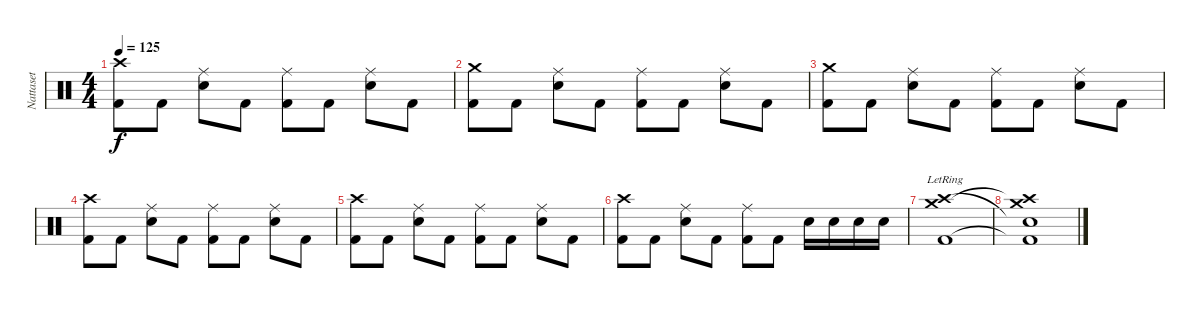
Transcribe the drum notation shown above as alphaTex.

\track ("Nattaset" "Nattaset") {instrument percussion}
\staff {score}
\articulation defaults
\ts (4 4)
\tempo 125
\clef neutral
\ks c
("Kick (hit) 2" "Crash high (hit)").8{dy f} "Kick (hit) 2".8 ("Snare (hit) 2" "Ride (middle)").8 "Kick (hit) 2".8 ("Kick (hit) 2" "Ride (middle)").8 "Kick (hit) 2".8 ("Snare (hit) 2" "Ride (middle)").8 "Kick (hit) 2".8 |
("Kick (hit) 2" "Crash medium (hit)").8 "Kick (hit) 2".8 ("Snare (hit) 2" "Ride (middle)").8 "Kick (hit) 2".8 ("Kick (hit) 2" "Ride (middle)").8 "Kick (hit) 2".8 ("Snare (hit) 2" "Ride (middle)").8 "Kick (hit) 2".8 |
("Kick (hit) 2" "Crash medium (hit)").8 "Kick (hit) 2".8 ("Snare (hit) 2" "Ride (middle)").8 "Kick (hit) 2".8 ("Kick (hit) 2" "Ride (middle)").8 "Kick (hit) 2".8 ("Snare (hit) 2" "Ride (middle)").8 "Kick (hit) 2".8 |
("Kick (hit) 2" "Crash high (hit)").8 "Kick (hit) 2".8 ("Snare (hit) 2" "Ride (middle)").8 "Kick (hit) 2".8 ("Kick (hit) 2" "Ride (middle)").8 "Kick (hit) 2".8 ("Snare (hit) 2" "Ride (middle)").8 "Kick (hit) 2".8 |
("Kick (hit) 2" "Crash high (hit)").8 "Kick (hit) 2".8 ("Snare (hit) 2" "Ride (middle)").8 "Kick (hit) 2".8 ("Kick (hit) 2" "Ride (middle)").8 "Kick (hit) 2".8 ("Snare (hit) 2" "Ride (middle)").8 "Kick (hit) 2".8 |
("Kick (hit) 2" "Crash high (hit)").8 "Kick (hit) 2".8 ("Snare (hit) 2" "Ride (middle)").8 "Kick (hit) 2".8 ("Kick (hit) 2" "Ride (middle)").8 "Kick (hit) 2".8 "Snare (hit) 2".16 "Snare (hit) 2".16 "Snare (hit) 2".16 "Snare (hit) 2".16 |
("Kick (hit) 2" "Crash high (hit)" "Crash medium (hit)"{lr}).1 |
("Kick (hit) 2"{t} "Snare (hit)"{t} "Crash high (hit)"{t} "Crash medium (hit)").1
